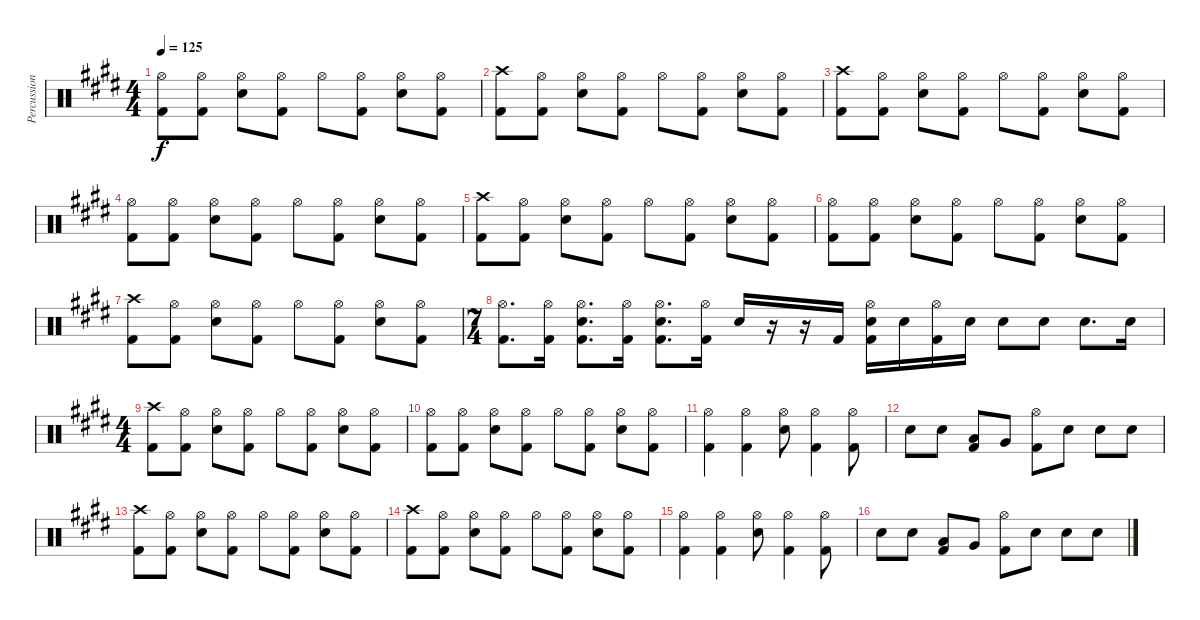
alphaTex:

\track ("Percussion" "Percussion") {instrument percussion}
\staff {score}
\articulation defaults
\ts (4 4)
\tempo 125
\clef neutral
\ks e
("Hi-Hat (open)" "Kick (hit) 2").8{dy f} ("Hi-Hat (open)" "Kick (hit) 2").8 ("Hi-Hat (open)" "Electric Snare (hit)").8 ("Hi-Hat (open)" "Kick (hit) 2").8 "Hi-Hat (open)".8 ("Hi-Hat (open)" "Kick (hit) 2").8 ("Hi-Hat (open)" "Electric Snare (hit)").8 ("Hi-Hat (open)" "Kick (hit) 2").8 |
("Crash high (hit)" "Kick (hit) 2").8 ("Hi-Hat (open)" "Kick (hit) 2").8 ("Hi-Hat (open)" "Electric Snare (hit)").8 ("Hi-Hat (open)" "Kick (hit) 2").8 "Hi-Hat (open)".8 ("Hi-Hat (open)" "Kick (hit) 2").8 ("Hi-Hat (open)" "Electric Snare (hit)").8 ("Hi-Hat (open)" "Kick (hit) 2").8 |
("Crash high (hit)" "Kick (hit) 2").8 ("Hi-Hat (open)" "Kick (hit) 2").8 ("Hi-Hat (open)" "Electric Snare (hit)").8 ("Hi-Hat (open)" "Kick (hit) 2").8 "Hi-Hat (open)".8 ("Hi-Hat (open)" "Kick (hit) 2").8 ("Hi-Hat (open)" "Electric Snare (hit)").8 ("Hi-Hat (open)" "Kick (hit) 2").8 |
("Hi-Hat (open)" "Kick (hit) 2").8 ("Hi-Hat (open)" "Kick (hit) 2").8 ("Hi-Hat (open)" "Electric Snare (hit)").8 ("Hi-Hat (open)" "Kick (hit) 2").8 "Hi-Hat (open)".8 ("Hi-Hat (open)" "Kick (hit) 2").8 ("Hi-Hat (open)" "Electric Snare (hit)").8 ("Hi-Hat (open)" "Kick (hit) 2").8 |
("Crash high (hit)" "Kick (hit) 2").8 ("Hi-Hat (open)" "Kick (hit) 2").8 ("Hi-Hat (open)" "Electric Snare (hit)").8 ("Hi-Hat (open)" "Kick (hit) 2").8 "Hi-Hat (open)".8 ("Hi-Hat (open)" "Kick (hit) 2").8 ("Hi-Hat (open)" "Electric Snare (hit)").8 ("Hi-Hat (open)" "Kick (hit) 2").8 |
("Hi-Hat (open)" "Kick (hit) 2").8 ("Hi-Hat (open)" "Kick (hit) 2").8 ("Hi-Hat (open)" "Electric Snare (hit)").8 ("Hi-Hat (open)" "Kick (hit) 2").8 "Hi-Hat (open)".8 ("Hi-Hat (open)" "Kick (hit) 2").8 ("Hi-Hat (open)" "Electric Snare (hit)").8 ("Hi-Hat (open)" "Kick (hit) 2").8 |
("Crash high (hit)" "Kick (hit) 2").8 ("Hi-Hat (open)" "Kick (hit) 2").8 ("Hi-Hat (open)" "Electric Snare (hit)").8 ("Hi-Hat (open)" "Kick (hit) 2").8 "Hi-Hat (open)".8 ("Hi-Hat (open)" "Kick (hit) 2").8 ("Hi-Hat (open)" "Electric Snare (hit)").8 ("Hi-Hat (open)" "Kick (hit) 2").8 |
\ts (7 4)
("Hi-Hat (open)" "Kick (hit) 2").8{d} ("Hi-Hat (open)" "Kick (hit) 2").16 ("Hi-Hat (open)" "Electric Snare (hit)" "Kick (hit) 2").8{d} ("Hi-Hat (open)" "Kick (hit) 2").16 ("Hi-Hat (open)" "Electric Snare (hit)" "Kick (hit) 2").8{d} ("Hi-Hat (open)" "Kick (hit) 2").16 "Electric Snare (hit)".16 r.16 r.16 "Kick (hit) 2".16 ("Hi-Hat (open)" "Electric Snare (hit)" "Kick (hit) 2").16 "Electric Snare (hit)".16 ("Hi-Hat (open)" "Kick (hit) 2").16 "Electric Snare (hit)".16 "Electric Snare (hit)".8 "Electric Snare (hit)".8 "Electric Snare (hit)".8{d} "Electric Snare (hit)".16 |
\ts (4 4)
("Crash high (hit)" "Kick (hit) 2").8 ("Hi-Hat (open)" "Kick (hit) 2").8 ("Hi-Hat (open)" "Electric Snare (hit)").8 ("Hi-Hat (open)" "Kick (hit) 2").8 "Hi-Hat (open)".8 ("Hi-Hat (open)" "Kick (hit) 2").8 ("Hi-Hat (open)" "Electric Snare (hit)").8 ("Hi-Hat (open)" "Kick (hit) 2").8 |
("Hi-Hat (open)" "Kick (hit) 2").8 ("Hi-Hat (open)" "Kick (hit) 2").8 ("Hi-Hat (open)" "Electric Snare (hit)").8 ("Hi-Hat (open)" "Kick (hit) 2").8 "Hi-Hat (open)".8 ("Hi-Hat (open)" "Kick (hit) 2").8 ("Hi-Hat (open)" "Electric Snare (hit)").8 ("Hi-Hat (open)" "Kick (hit) 2").8 |
("Hi-Hat (open)" "Kick (hit) 2").4 ("Hi-Hat (open)" "Kick (hit) 2").4 ("Hi-Hat (open)" "Electric Snare (hit)").8 ("Hi-Hat (open)" "Kick (hit) 2").4 ("Hi-Hat (open)" "Kick (hit) 2").8 |
"Electric Snare (hit)".8 "Electric Snare (hit)".8 ("Low Tom (hit)" "Kick (hit) 2").8 "Very Low Tom (hit)".8 ("Hi-Hat (open)" "Kick (hit) 2").8 "Electric Snare (hit)".8 "Electric Snare (hit)".8 "Electric Snare (hit)".8 |
("Crash high (hit)" "Kick (hit) 2").8 ("Hi-Hat (open)" "Kick (hit) 2").8 ("Hi-Hat (open)" "Electric Snare (hit)").8 ("Hi-Hat (open)" "Kick (hit) 2").8 "Hi-Hat (open)".8 ("Hi-Hat (open)" "Kick (hit) 2").8 ("Hi-Hat (open)" "Electric Snare (hit)").8 ("Hi-Hat (open)" "Kick (hit) 2").8 |
("Crash high (hit)" "Kick (hit) 2").8 ("Hi-Hat (open)" "Kick (hit) 2").8 ("Hi-Hat (open)" "Electric Snare (hit)").8 ("Hi-Hat (open)" "Kick (hit) 2").8 "Hi-Hat (open)".8 ("Hi-Hat (open)" "Kick (hit) 2").8 ("Hi-Hat (open)" "Electric Snare (hit)").8 ("Hi-Hat (open)" "Kick (hit) 2").8 |
("Hi-Hat (open)" "Kick (hit) 2").4 ("Hi-Hat (open)" "Kick (hit) 2").4 ("Hi-Hat (open)" "Electric Snare (hit)").8 ("Hi-Hat (open)" "Kick (hit) 2").4 ("Hi-Hat (open)" "Kick (hit) 2").8 |
"Electric Snare (hit)".8 "Electric Snare (hit)".8 ("Low Tom (hit)" "Kick (hit) 2").8 "Very Low Tom (hit)".8 ("Hi-Hat (open)" "Kick (hit) 2").8 "Electric Snare (hit)".8 "Electric Snare (hit)".8 "Electric Snare (hit)".8
